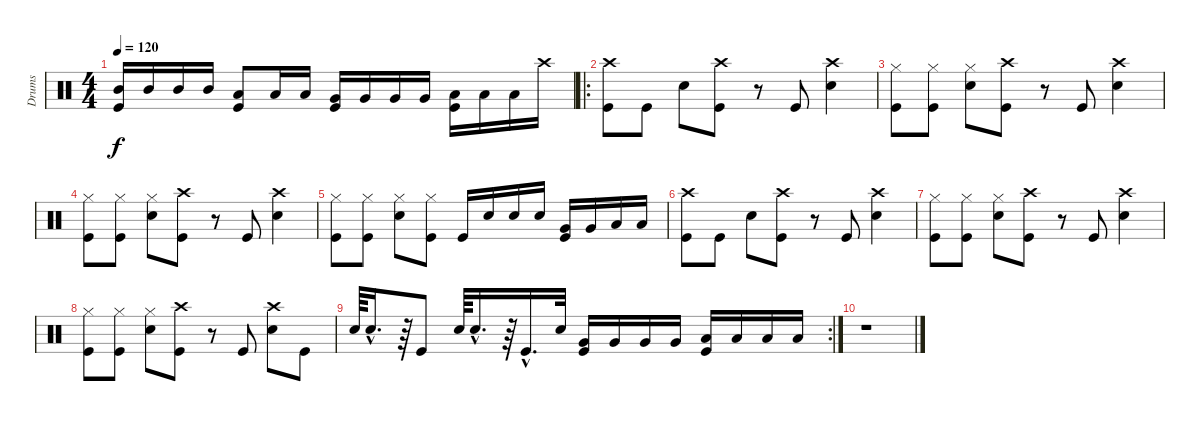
\track ("Drums" "Drums") {instrument percussion}
\staff {score}
\articulation defaults
\ts (4 4)
\tempo 120
\clef neutral
\ks c
("Kick (hit)" "Mid Tom (hit)").16{dy f} "Mid Tom (hit)".16 "Mid Tom (hit)".16 "Mid Tom (hit)".16 ("Kick (hit)" "Low Tom (hit)").8 "Low Tom (hit)".16 "Low Tom (hit)".16 ("Kick (hit)" "Very Low Tom (hit)").16 "Very Low Tom (hit)".16 "Very Low Tom (hit)".16 "Very Low Tom (hit)".16 ("Kick (hit)" "Low Floor Tom (hit)").16 "Low Floor Tom (hit)".16 "Low Floor Tom (hit)".16 "Crash high (hit)".16 |
\ro
("Crash high (hit)" "Kick (hit)").8 "Kick (hit)".8 "Snare (hit) 2".8 ("Crash high (hit)" "Kick (hit)").8 r.8 "Kick (hit)".8 ("Crash high (hit)" "Snare (hit) 2").4 |
("Hi-Hat (closed)" "Kick (hit)").8 ("Hi-Hat (closed)" "Kick (hit)").8 ("Hi-Hat (closed)" "Snare (hit) 2").8 ("Crash high (hit)" "Kick (hit)").8 r.8 "Kick (hit)".8 ("Crash high (hit)" "Snare (hit) 2").4 |
("Hi-Hat (closed)" "Kick (hit)").8 ("Hi-Hat (closed)" "Kick (hit)").8 ("Hi-Hat (closed)" "Snare (hit) 2").8 ("Crash high (hit)" "Kick (hit)").8 r.8 "Kick (hit)".8 ("Crash high (hit)" "Snare (hit) 2").4 |
("Hi-Hat (closed)" "Kick (hit)").8 ("Hi-Hat (closed)" "Kick (hit)").8 ("Hi-Hat (closed)" "Snare (hit) 2").8 ("Hi-Hat (closed)" "Kick (hit)").8 "Kick (hit)".16 "Snare (hit) 2".16 "Snare (hit) 2".16 "Snare (hit) 2".16 ("Kick (hit)" "Very Low Tom (hit)").16 "Very Low Tom (hit)".16 "Low Floor Tom (hit)".16 "Low Floor Tom (hit)".16 |
("Crash high (hit)" "Kick (hit)").8 "Kick (hit)".8 "Snare (hit) 2".8 ("Crash high (hit)" "Kick (hit)").8 r.8 "Kick (hit)".8 ("Crash high (hit)" "Snare (hit) 2").4 |
("Hi-Hat (closed)" "Kick (hit)").8 ("Hi-Hat (closed)" "Kick (hit)").8 ("Hi-Hat (closed)" "Snare (hit) 2").8 ("Crash high (hit)" "Kick (hit)").8 r.8 "Kick (hit)".8 ("Crash high (hit)" "Snare (hit) 2").4 |
("Hi-Hat (closed)" "Kick (hit)").8 ("Hi-Hat (closed)" "Kick (hit)").8 ("Hi-Hat (closed)" "Snare (hit) 2").8 ("Crash high (hit)" "Kick (hit)").8 r.8 "Kick (hit)".8 ("Crash high (hit)" "Snare (hit) 2").8 "Kick (hit)".8 |
\rc 2 "Snare (hit) 2".64 "Snare (hit) 2"{hac}.16{d}
r.64 "Kick (hit)".8 "Snare (hit) 2".64 "Snare (hit) 2"{hac}.16{d} r.64 "Kick (hit)"{hac}.16{d} "Snare (hit) 2".32 ("Kick (hit)" "Very Low Tom (hit)").16 "Very Low Tom (hit)".16 "Very Low Tom (hit)".16 "Very Low Tom (hit)".16 ("Kick (hit)" "Low Floor Tom (hit)").16 "Low Floor Tom (hit)".16 "Low Floor Tom (hit)".16 "Low Floor Tom (hit)".16 |
r.1
